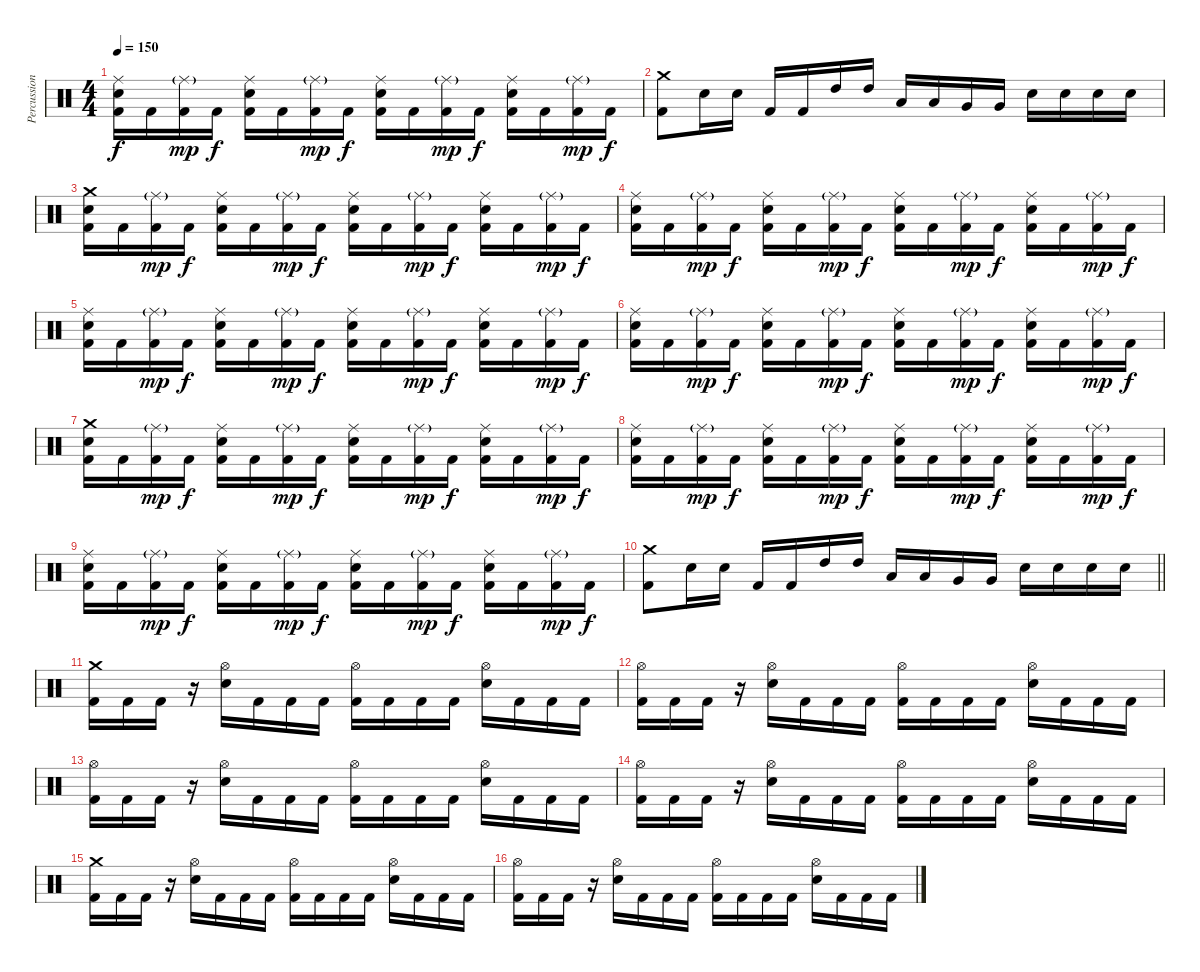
\track ("Percussions" "Percussion") {instrument percussion}
\staff {score}
\articulation defaults
\ts (4 4)
\tempo 150
\clef neutral
\ks c
("Ride (middle)" "Snare (hit) 2" "Kick (hit) 2").16{dy f} "Kick (hit) 2".16 ("Ride (middle)"{g} "Kick (hit) 2").16{dy mp} "Kick (hit) 2".16{dy f} ("Ride (middle)" "Snare (hit) 2" "Kick (hit) 2").16 "Kick (hit) 2".16 ("Ride (middle)"{g} "Kick (hit) 2").16{dy mp} "Kick (hit) 2".16{dy f} ("Ride (middle)" "Snare (hit) 2" "Kick (hit) 2").16 "Kick (hit) 2".16 ("Ride (middle)"{g} "Kick (hit) 2").16{dy mp} "Kick (hit) 2".16{dy f} ("Ride (middle)" "Snare (hit) 2" "Kick (hit) 2").16 "Kick (hit) 2".16 ("Ride (middle)"{g} "Kick (hit) 2").16{dy mp} "Kick (hit) 2".16{dy f} |
("Crash medium (hit)" "Kick (hit) 2").8 "Snare (hit) 2".16 "Snare (hit) 2".16 "Kick (hit) 2".16 "Kick (hit) 2".16 "High Tom (hit)".16 "High Tom (hit)".16 "Low Tom (hit)".16 "Low Tom (hit)".16 "Very Low Tom (hit)".16 "Very Low Tom (hit)".16 "Snare (hit) 2".16 "Snare (hit) 2".16 "Snare (hit) 2".16 "Snare (hit) 2".16 |
("Crash medium (hit)" "Snare (hit) 2" "Kick (hit) 2").16 "Kick (hit) 2".16 ("Ride (middle)"{g} "Kick (hit) 2").16{dy mp} "Kick (hit) 2".16{dy f} ("Ride (middle)" "Snare (hit) 2" "Kick (hit) 2").16 "Kick (hit) 2".16 ("Ride (middle)"{g} "Kick (hit) 2").16{dy mp} "Kick (hit) 2".16{dy f} ("Ride (middle)" "Snare (hit) 2" "Kick (hit) 2").16 "Kick (hit) 2".16 ("Ride (middle)"{g} "Kick (hit) 2").16{dy mp} "Kick (hit) 2".16{dy f} ("Ride (middle)" "Snare (hit) 2" "Kick (hit) 2").16 "Kick (hit) 2".16 ("Ride (middle)"{g} "Kick (hit) 2").16{dy mp} "Kick (hit) 2".16{dy f} |
("Ride (middle)" "Snare (hit) 2" "Kick (hit) 2").16 "Kick (hit) 2".16 ("Ride (middle)"{g} "Kick (hit) 2").16{dy mp} "Kick (hit) 2".16{dy f} ("Ride (middle)" "Snare (hit) 2" "Kick (hit) 2").16 "Kick (hit) 2".16 ("Ride (middle)"{g} "Kick (hit) 2").16{dy mp} "Kick (hit) 2".16{dy f} ("Ride (middle)" "Snare (hit) 2" "Kick (hit) 2").16 "Kick (hit) 2".16 ("Ride (middle)"{g} "Kick (hit) 2").16{dy mp} "Kick (hit) 2".16{dy f} ("Ride (middle)" "Snare (hit) 2" "Kick (hit) 2").16 "Kick (hit) 2".16 ("Ride (middle)"{g} "Kick (hit) 2").16{dy mp} "Kick (hit) 2".16{dy f} |
("Ride (middle)" "Snare (hit) 2" "Kick (hit) 2").16 "Kick (hit) 2".16 ("Ride (middle)"{g} "Kick (hit) 2").16{dy mp} "Kick (hit) 2".16{dy f} ("Ride (middle)" "Snare (hit) 2" "Kick (hit) 2").16 "Kick (hit) 2".16 ("Ride (middle)"{g} "Kick (hit) 2").16{dy mp} "Kick (hit) 2".16{dy f} ("Ride (middle)" "Snare (hit) 2" "Kick (hit) 2").16 "Kick (hit) 2".16 ("Ride (middle)"{g} "Kick (hit) 2").16{dy mp} "Kick (hit) 2".16{dy f} ("Ride (middle)" "Snare (hit) 2" "Kick (hit) 2").16 "Kick (hit) 2".16 ("Ride (middle)"{g} "Kick (hit) 2").16{dy mp} "Kick (hit) 2".16{dy f} |
("Ride (middle)" "Snare (hit) 2" "Kick (hit) 2").16 "Kick (hit) 2".16 ("Ride (middle)"{g} "Kick (hit) 2").16{dy mp} "Kick (hit) 2".16{dy f} ("Ride (middle)" "Snare (hit) 2" "Kick (hit) 2").16 "Kick (hit) 2".16 ("Ride (middle)"{g} "Kick (hit) 2").16{dy mp} "Kick (hit) 2".16{dy f} ("Ride (middle)" "Snare (hit) 2" "Kick (hit) 2").16 "Kick (hit) 2".16 ("Ride (middle)"{g} "Kick (hit) 2").16{dy mp} "Kick (hit) 2".16{dy f} ("Ride (middle)" "Snare (hit) 2" "Kick (hit) 2").16 "Kick (hit) 2".16 ("Ride (middle)"{g} "Kick (hit) 2").16{dy mp} "Kick (hit) 2".16{dy f} |
("Crash medium (hit)" "Snare (hit) 2" "Kick (hit) 2").16 "Kick (hit) 2".16 ("Ride (middle)"{g} "Kick (hit) 2").16{dy mp} "Kick (hit) 2".16{dy f} ("Ride (middle)" "Snare (hit) 2" "Kick (hit) 2").16 "Kick (hit) 2".16 ("Ride (middle)"{g} "Kick (hit) 2").16{dy mp} "Kick (hit) 2".16{dy f} ("Ride (middle)" "Snare (hit) 2" "Kick (hit) 2").16 "Kick (hit) 2".16 ("Ride (middle)"{g} "Kick (hit) 2").16{dy mp} "Kick (hit) 2".16{dy f} ("Ride (middle)" "Snare (hit) 2" "Kick (hit) 2").16 "Kick (hit) 2".16 ("Ride (middle)"{g} "Kick (hit) 2").16{dy mp} "Kick (hit) 2".16{dy f} |
("Ride (middle)" "Snare (hit) 2" "Kick (hit) 2").16 "Kick (hit) 2".16 ("Ride (middle)"{g} "Kick (hit) 2").16{dy mp} "Kick (hit) 2".16{dy f} ("Ride (middle)" "Snare (hit) 2" "Kick (hit) 2").16 "Kick (hit) 2".16 ("Ride (middle)"{g} "Kick (hit) 2").16{dy mp} "Kick (hit) 2".16{dy f} ("Ride (middle)" "Snare (hit) 2" "Kick (hit) 2").16 "Kick (hit) 2".16 ("Ride (middle)"{g} "Kick (hit) 2").16{dy mp} "Kick (hit) 2".16{dy f} ("Ride (middle)" "Snare (hit) 2" "Kick (hit) 2").16 "Kick (hit) 2".16 ("Ride (middle)"{g} "Kick (hit) 2").16{dy mp} "Kick (hit) 2".16{dy f} |
("Ride (middle)" "Snare (hit) 2" "Kick (hit) 2").16 "Kick (hit) 2".16 ("Ride (middle)"{g} "Kick (hit) 2").16{dy mp} "Kick (hit) 2".16{dy f} ("Ride (middle)" "Snare (hit) 2" "Kick (hit) 2").16 "Kick (hit) 2".16 ("Ride (middle)"{g} "Kick (hit) 2").16{dy mp} "Kick (hit) 2".16{dy f} ("Ride (middle)" "Snare (hit) 2" "Kick (hit) 2").16 "Kick (hit) 2".16 ("Ride (middle)"{g} "Kick (hit) 2").16{dy mp} "Kick (hit) 2".16{dy f} ("Ride (middle)" "Snare (hit) 2" "Kick (hit) 2").16 "Kick (hit) 2".16 ("Ride (middle)"{g} "Kick (hit) 2").16{dy mp} "Kick (hit) 2".16{dy f} |
\barLineRight lightlight
("Crash medium (hit)" "Kick (hit) 2").8 "Snare (hit) 2".16 "Snare (hit) 2".16 "Kick (hit) 2".16 "Kick (hit) 2".16 "High Tom (hit)".16 "High Tom (hit)".16 "Low Tom (hit)".16 "Low Tom (hit)".16 "Very Low Tom (hit)".16 "Very Low Tom (hit)".16 "Snare (hit) 2".16 "Snare (hit) 2".16 "Snare (hit) 2".16 "Snare (hit) 2".16 |
("Crash medium (hit)" "Kick (hit) 2").16 "Kick (hit) 2".16 "Kick (hit) 2".16 r.16 ("Hi-Hat (open)" "Snare (hit) 2").16 "Kick (hit) 2".16 "Kick (hit) 2".16 "Kick (hit) 2".16 ("Hi-Hat (open)" "Kick (hit) 2").16 "Kick (hit) 2".16 "Kick (hit) 2".16 "Kick (hit) 2".16 ("Hi-Hat (open)" "Snare (hit) 2").16 "Kick (hit) 2".16 "Kick (hit) 2".16 "Kick (hit) 2".16 |
("Hi-Hat (open)" "Kick (hit) 2").16 "Kick (hit) 2".16 "Kick (hit) 2".16 r.16 ("Hi-Hat (open)" "Snare (hit) 2").16 "Kick (hit) 2".16 "Kick (hit) 2".16 "Kick (hit) 2".16 ("Hi-Hat (open)" "Kick (hit) 2").16 "Kick (hit) 2".16 "Kick (hit) 2".16 "Kick (hit) 2".16 ("Hi-Hat (open)" "Snare (hit) 2").16 "Kick (hit) 2".16 "Kick (hit) 2".16 "Kick (hit) 2".16 |
("Hi-Hat (open)" "Kick (hit) 2").16 "Kick (hit) 2".16 "Kick (hit) 2".16 r.16 ("Hi-Hat (open)" "Snare (hit) 2").16 "Kick (hit) 2".16 "Kick (hit) 2".16 "Kick (hit) 2".16 ("Hi-Hat (open)" "Kick (hit) 2").16 "Kick (hit) 2".16 "Kick (hit) 2".16 "Kick (hit) 2".16 ("Hi-Hat (open)" "Snare (hit) 2").16 "Kick (hit) 2".16 "Kick (hit) 2".16 "Kick (hit) 2".16 |
("Hi-Hat (open)" "Kick (hit) 2").16 "Kick (hit) 2".16 "Kick (hit) 2".16 r.16 ("Hi-Hat (open)" "Snare (hit) 2").16 "Kick (hit) 2".16 "Kick (hit) 2".16 "Kick (hit) 2".16 ("Hi-Hat (open)" "Kick (hit) 2").16 "Kick (hit) 2".16 "Kick (hit) 2".16 "Kick (hit) 2".16 ("Hi-Hat (open)" "Snare (hit) 2").16 "Kick (hit) 2".16 "Kick (hit) 2".16 "Kick (hit) 2".16 |
("Crash medium (hit)" "Kick (hit) 2").16 "Kick (hit) 2".16 "Kick (hit) 2".16 r.16 ("Hi-Hat (open)" "Snare (hit) 2").16 "Kick (hit) 2".16 "Kick (hit) 2".16 "Kick (hit) 2".16 ("Hi-Hat (open)" "Kick (hit) 2").16 "Kick (hit) 2".16 "Kick (hit) 2".16 "Kick (hit) 2".16 ("Hi-Hat (open)" "Snare (hit) 2").16 "Kick (hit) 2".16 "Kick (hit) 2".16 "Kick (hit) 2".16 |
("Hi-Hat (open)" "Kick (hit) 2").16 "Kick (hit) 2".16 "Kick (hit) 2".16 r.16 ("Hi-Hat (open)" "Snare (hit) 2").16 "Kick (hit) 2".16 "Kick (hit) 2".16 "Kick (hit) 2".16 ("Hi-Hat (open)" "Kick (hit) 2").16 "Kick (hit) 2".16 "Kick (hit) 2".16 "Kick (hit) 2".16 ("Hi-Hat (open)" "Snare (hit) 2").16 "Kick (hit) 2".16 "Kick (hit) 2".16 "Kick (hit) 2".16
